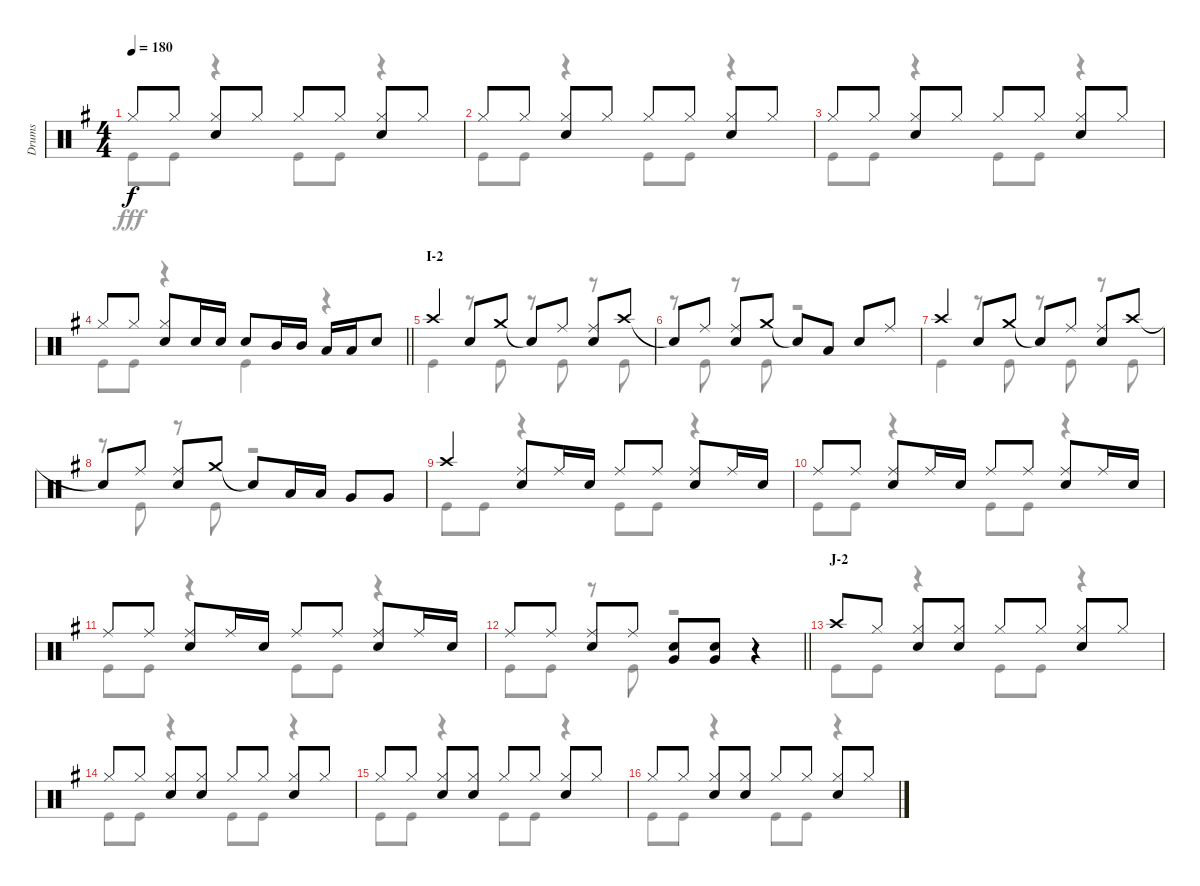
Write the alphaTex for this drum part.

\track ("Drums" "Drums") {instrument percussion}
\staff {score}
\articulation defaults
\voice
\ts (4 4)
\tempo 180
\clef neutral
\ks g "Hi-Hat (closed)".8{dy f} "Hi-Hat (closed)".8
("Hi-Hat (closed)" "Snare (hit) 2").8 "Hi-Hat (closed)".8 "Hi-Hat (closed)".8 "Hi-Hat (closed)".8 ("Hi-Hat (closed)" "Snare (hit) 2").8 "Hi-Hat (closed)".8 |
"Hi-Hat (closed)".8 "Hi-Hat (closed)".8 ("Hi-Hat (closed)" "Snare (hit) 2").8 "Hi-Hat (closed)".8 "Hi-Hat (closed)".8 "Hi-Hat (closed)".8 ("Hi-Hat (closed)" "Snare (hit) 2").8 "Hi-Hat (closed)".8 |
"Hi-Hat (closed)".8 "Hi-Hat (closed)".8 ("Hi-Hat (closed)" "Snare (hit) 2").8 "Hi-Hat (closed)".8 "Hi-Hat (closed)".8 "Hi-Hat (closed)".8 ("Hi-Hat (closed)" "Snare (hit) 2").8 "Hi-Hat (closed)".8 |
\barLineRight lightlight "Hi-Hat (closed)".8 "Hi-Hat (closed)".8
("Hi-Hat (closed)" "Snare (hit) 2").8 "Snare (hit) 2".16 "Snare (hit) 2".16 "Snare (hit) 2".8 "Mid Tom (hit)".16 "Mid Tom (hit)".16 "Low Tom (hit)".16 "Low Tom (hit)".16 "Snare (hit) 2".8 |
\section ("" "I-2")
"Crash high (hit)".4 "Snare (hit) 2".8 "Crash medium (hit)".8 "Snare (hit)"{t}.8 "Ride (middle)".8 ("Ride (middle)" "Snare (hit) 2").8 "Crash high (hit)".8 |
"Snare (hit)"{t}.8 "Ride (middle)".8 ("Ride (middle)" "Snare (hit) 2").8 "Crash medium (hit)".8 "Snare (hit)"{t}.8 "Low Tom (hit)".8 "Snare (hit) 2".8 "Ride (middle)".8 |
"Crash high (hit)".4 "Snare (hit) 2".8 "Crash medium (hit)".8 "Snare (hit)"{t}.8 "Ride (middle)".8 ("Ride (middle)" "Snare (hit) 2").8 "Crash high (hit)".8 |
"Snare (hit)"{t}.8 "Ride (middle)".8 ("Ride (middle)" "Snare (hit) 2").8 "Crash medium (hit)".8 "Snare (hit)"{t}.8 "Low Tom (hit)".16 "Low Tom (hit)".16 "Very Low Tom (hit)".8 "Very Low Tom (hit)".8 |
"Crash high (hit)".4 ("Ride (middle)" "Snare (hit) 2").8 "Ride (middle)".16 "Snare (hit) 2".16 "Ride (middle)".8 "Ride (middle)".8 ("Ride (middle)" "Snare (hit) 2").8 "Ride (middle)".16 "Snare (hit) 2".16 |
"Ride (middle)".8 "Ride (middle)".8 ("Ride (middle)" "Snare (hit) 2").8 "Ride (middle)".16 "Snare (hit) 2".16 "Ride (middle)".8 "Ride (middle)".8 ("Ride (middle)" "Snare (hit) 2").8 "Ride (middle)".16 "Snare (hit) 2".16 |
"Ride (middle)".8 "Ride (middle)".8 ("Ride (middle)" "Snare (hit) 2").8 "Ride (middle)".16 "Snare (hit) 2".16 "Ride (middle)".8 "Ride (middle)".8 ("Ride (middle)" "Snare (hit) 2").8 "Ride (middle)".16 "Snare (hit) 2".16 |
\barLineRight lightlight "Ride (middle)".8 "Ride (middle)".8
("Ride (middle)" "Snare (hit) 2").8 "Ride (middle)".8 ("Snare (hit) 2" "Very Low Tom (hit)").8 ("Snare (hit) 2" "Very Low Tom (hit)").8 r.4 |
\section ("" "J-2")
"Crash high (hit)".8 "Hi-Hat (closed)".8 ("Hi-Hat (closed)" "Snare (hit) 2").8 ("Hi-Hat (closed)" "Snare (hit) 2").8 "Hi-Hat (closed)".8 "Hi-Hat (closed)".8 ("Hi-Hat (closed)" "Snare (hit) 2").8 "Hi-Hat (closed)".8 |
"Hi-Hat (closed)".8 "Hi-Hat (closed)".8 ("Hi-Hat (closed)" "Snare (hit) 2").8 ("Hi-Hat (closed)" "Snare (hit) 2").8 "Hi-Hat (closed)".8 "Hi-Hat (closed)".8 ("Hi-Hat (closed)" "Snare (hit) 2").8 "Hi-Hat (closed)".8 |
"Hi-Hat (closed)".8 "Hi-Hat (closed)".8 ("Hi-Hat (closed)" "Snare (hit) 2").8 ("Hi-Hat (closed)" "Snare (hit) 2").8 "Hi-Hat (closed)".8 "Hi-Hat (closed)".8 ("Hi-Hat (closed)" "Snare (hit) 2").8 "Hi-Hat (closed)".8 |
"Hi-Hat (closed)".8 "Hi-Hat (closed)".8 ("Hi-Hat (closed)" "Snare (hit) 2").8 ("Hi-Hat (closed)" "Snare (hit) 2").8 "Hi-Hat (closed)".8 "Hi-Hat (closed)".8 ("Hi-Hat (closed)" "Snare (hit) 2").8 "Hi-Hat (closed)".8
\voice
\clef neutral
\ottava regular
\simile none
\ks g "Kick (hit)".8{dy fff} "Kick (hit)".8
r.4 "Kick (hit)".8 "Kick (hit)".8 r.4 |
"Kick (hit)".8 "Kick (hit)".8 r.4 "Kick (hit)".8 "Kick (hit)".8 r.4 |
"Kick (hit)".8 "Kick (hit)".8 r.4 "Kick (hit)".8 "Kick (hit)".8 r.4 |
\barLineRight lightlight "Kick (hit)".8 "Kick (hit)".8
r.4 "Kick (hit)".4 r.4 |
"Kick (hit)".4 r.8 "Kick (hit)".8 r.8 "Kick (hit)".8 r.8 "Kick (hit)".8 |
r.8 "Kick (hit)".8 r.8 "Kick (hit)".8 r.2 |
"Kick (hit)".4 r.8 "Kick (hit)".8 r.8 "Kick (hit)".8 r.8 "Kick (hit)".8 |
r.8 "Kick (hit)".8 r.8 "Kick (hit)".8 r.2 |
"Kick (hit)".8 "Kick (hit)".8 r.4 "Kick (hit)".8 "Kick (hit)".8 r.4 |
"Kick (hit)".8 "Kick (hit)".8 r.4 "Kick (hit)".8 "Kick (hit)".8 r.4 |
"Kick (hit)".8 "Kick (hit)".8 r.4 "Kick (hit)".8 "Kick (hit)".8 r.4 |
\barLineRight lightlight "Kick (hit)".8 "Kick (hit)".8
r.8 "Kick (hit)".8 r.2 |
"Kick (hit)".8 "Kick (hit)".8 r.4 "Kick (hit)".8 "Kick (hit)".8 r.4 |
"Kick (hit)".8 "Kick (hit)".8 r.4 "Kick (hit)".8 "Kick (hit)".8 r.4 |
"Kick (hit)".8 "Kick (hit)".8 r.4 "Kick (hit)".8 "Kick (hit)".8 r.4 |
"Kick (hit)".8 "Kick (hit)".8 r.4 "Kick (hit)".8 "Kick (hit)".8 r.4
